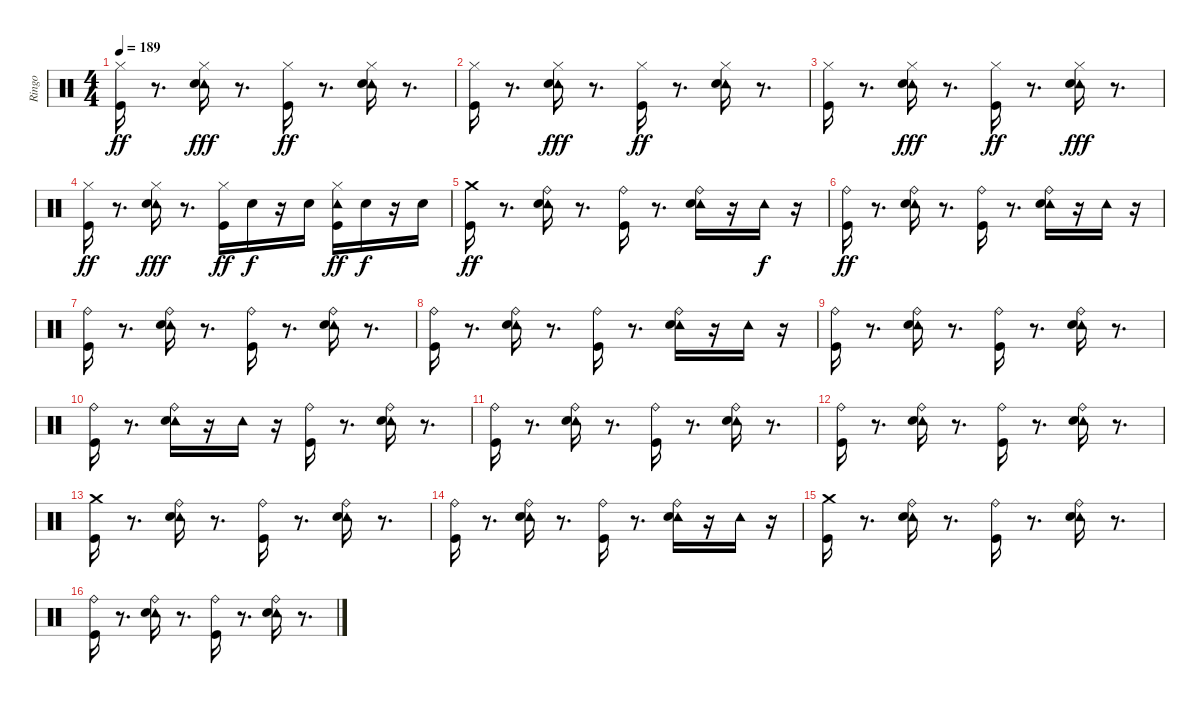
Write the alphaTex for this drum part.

\track ("Ringo" "Ringo") {instrument percussion}
\staff {score}
\articulation defaults
\ts (4 4)
\tempo 189
\clef neutral
\ks c
("Hi-Hat (closed)" "Kick (hit)").16{dy ff} r.8{d} ("Tambourine (hit)" "Hi-Hat (closed)" "Snare (hit) 2").16{dy fff} r.8{d} ("Hi-Hat (closed)" "Kick (hit)").16{dy ff} r.8{d} ("Hi-Hat (closed)" "Tambourine (hit)" "Snare (hit) 2").16 r.8{d} |
("Hi-Hat (closed)" "Kick (hit)").16 r.8{d} ("Tambourine (hit)" "Hi-Hat (closed)" "Snare (hit) 2").16{dy fff} r.8{d} ("Hi-Hat (closed)" "Kick (hit)").16{dy ff} r.8{d} ("Hi-Hat (closed)" "Tambourine (hit)" "Snare (hit) 2").16 r.8{d} |
("Hi-Hat (closed)" "Kick (hit)").16 r.8{d} ("Tambourine (hit)" "Hi-Hat (closed)" "Snare (hit) 2").16{dy fff} r.8{d} ("Hi-Hat (closed)" "Kick (hit)").16{dy ff} r.8{d} ("Tambourine (hit)" "Hi-Hat (closed)" "Snare (hit) 2").16{dy fff} r.8{d} |
("Hi-Hat (closed)" "Kick (hit)").16{dy ff} r.8{d} ("Tambourine (hit)" "Hi-Hat (closed)" "Snare (hit) 2").16{dy fff} r.8{d} ("Hi-Hat (closed)" "Kick (hit)").16{dy ff} "Snare (hit) 2".16{dy f} r.16 "Snare (hit) 2".16 ("Hi-Hat (closed)" "Tambourine (hit)" "Kick (hit)").16{dy ff} "Snare (hit) 2".16{dy f} r.16 "Snare (hit) 2".16 |
("Crash medium (hit)" "Kick (hit)").16{dy ff} r.8{d} ("Tambourine (hit)" "Ride (bell)" "Snare (hit) 2").16 r.8{d} ("Ride (bell)" "Kick (hit)").16 r.8{d} ("Ride (bell)" "Tambourine (hit)" "Snare (hit) 2").16 r.16 "Tambourine (hit)".16{dy f} r.16 |
("Ride (bell)" "Kick (hit)").16{dy ff} r.8{d} ("Tambourine (hit)" "Ride (bell)" "Snare (hit) 2").16 r.8{d} ("Ride (bell)" "Kick (hit)").16 r.8{d} ("Ride (bell)" "Tambourine (hit)" "Snare (hit) 2").16 r.16 "Tambourine (hit)".16 r.16 |
("Ride (bell)" "Kick (hit)").16 r.8{d} ("Tambourine (hit)" "Ride (bell)" "Snare (hit) 2").16 r.8{d} ("Ride (bell)" "Kick (hit)").16 r.8{d} ("Tambourine (hit)" "Ride (bell)" "Snare (hit) 2").16 r.8{d} |
("Ride (bell)" "Kick (hit)").16 r.8{d} ("Ride (bell)" "Tambourine (hit)" "Snare (hit) 2").16 r.8{d} ("Ride (bell)" "Kick (hit)").16 r.8{d} ("Tambourine (hit)" "Ride (bell)" "Snare (hit) 2").16 r.16 "Tambourine (hit)".16 r.16 |
("Ride (bell)" "Kick (hit)").16 r.8{d} ("Ride (bell)" "Tambourine (hit)" "Snare (hit) 2").16 r.8{d} ("Ride (bell)" "Kick (hit)").16 r.8{d} ("Tambourine (hit)" "Ride (bell)" "Snare (hit) 2").16 r.8{d} |
("Ride (bell)" "Kick (hit)").16 r.8{d} ("Ride (bell)" "Tambourine (hit)" "Snare (hit) 2").16 r.16 "Tambourine (hit)".16 r.16 ("Ride (bell)" "Kick (hit)").16 r.8{d} ("Tambourine (hit)" "Ride (bell)" "Snare (hit) 2").16 r.8{d} |
("Ride (bell)" "Kick (hit)").16 r.8{d} ("Ride (bell)" "Tambourine (hit)" "Snare (hit) 2").16 r.8{d} ("Ride (bell)" "Kick (hit)").16 r.8{d} ("Ride (bell)" "Tambourine (hit)" "Snare (hit) 2").16 r.8{d} |
("Ride (bell)" "Kick (hit)").16 r.8{d} ("Ride (bell)" "Tambourine (hit)" "Snare (hit) 2").16 r.8{d} ("Ride (bell)" "Kick (hit)").16 r.8{d} ("Ride (bell)" "Tambourine (hit)" "Snare (hit) 2").16 r.8{d} |
("Crash medium (hit)" "Kick (hit)").16 r.8{d} ("Tambourine (hit)" "Ride (bell)" "Snare (hit) 2").16 r.8{d} ("Ride (bell)" "Kick (hit)").16 r.8{d} ("Tambourine (hit)" "Ride (bell)" "Snare (hit) 2").16 r.8{d} |
("Ride (bell)" "Kick (hit)").16 r.8{d} ("Tambourine (hit)" "Ride (bell)" "Snare (hit) 2").16 r.8{d} ("Ride (bell)" "Kick (hit)").16 r.8{d} ("Ride (bell)" "Tambourine (hit)" "Snare (hit) 2").16 r.16 "Tambourine (hit)".16 r.16 |
("Crash medium (hit)" "Kick (hit)").16 r.8{d} ("Tambourine (hit)" "Ride (bell)" "Snare (hit) 2").16 r.8{d} ("Ride (bell)" "Kick (hit)").16 r.8{d} ("Ride (bell)" "Tambourine (hit)" "Snare (hit) 2").16 r.8{d} |
("Ride (bell)" "Kick (hit)").16 r.8{d} ("Ride (bell)" "Tambourine (hit)" "Snare (hit) 2").16 r.8{d} ("Ride (bell)" "Kick (hit)").16 r.8{d} ("Tambourine (hit)" "Ride (bell)" "Snare (hit) 2").16 r.8{d}
